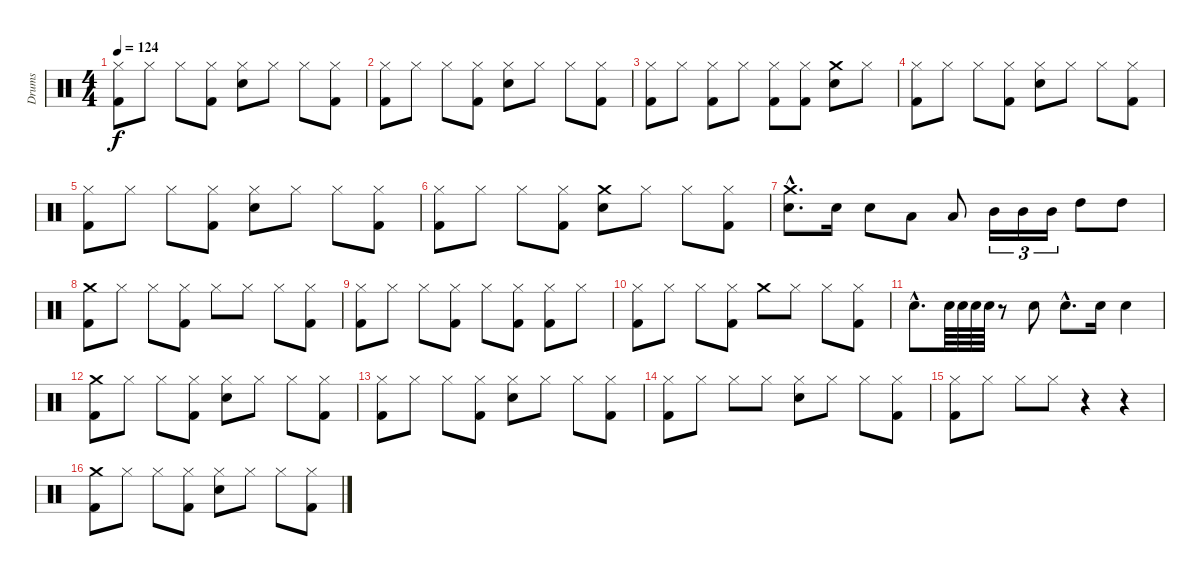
\track ("Drums" "Drums") {instrument percussion}
\staff {score}
\articulation defaults
\ts (4 4)
\tempo 124
\clef neutral
\ks c
("Kick (hit) 2" "Hi-Hat (closed)").8{dy f} "Hi-Hat (closed)".8 "Hi-Hat (closed)".8 ("Kick (hit) 2" "Hi-Hat (closed)").8 ("Snare (hit) 2" "Hi-Hat (closed)").8 "Hi-Hat (closed)".8 "Hi-Hat (closed)".8 ("Kick (hit) 2" "Hi-Hat (closed)").8 |
("Kick (hit) 2" "Hi-Hat (closed)").8 "Hi-Hat (closed)".8 "Hi-Hat (closed)".8 ("Kick (hit) 2" "Hi-Hat (closed)").8 ("Snare (hit) 2" "Hi-Hat (closed)").8 "Hi-Hat (closed)".8 "Hi-Hat (closed)".8 ("Kick (hit) 2" "Hi-Hat (closed)").8 |
("Kick (hit) 2" "Hi-Hat (closed)").8 "Hi-Hat (closed)".8 ("Kick (hit) 2" "Hi-Hat (closed)").8 "Hi-Hat (closed)".8 ("Kick (hit) 2" "Hi-Hat (closed)").8 ("Kick (hit) 2" "Hi-Hat (closed)").8 ("Snare (hit) 2" "Crash medium (hit)").8 "Hi-Hat (closed)".8 |
("Kick (hit) 2" "Hi-Hat (closed)").8 "Hi-Hat (closed)".8 "Hi-Hat (closed)".8 ("Kick (hit) 2" "Hi-Hat (closed)").8 ("Snare (hit) 2" "Hi-Hat (closed)").8 "Hi-Hat (closed)".8 "Hi-Hat (closed)".8 ("Kick (hit) 2" "Hi-Hat (closed)").8 |
("Kick (hit) 2" "Hi-Hat (closed)").8 "Hi-Hat (closed)".8 "Hi-Hat (closed)".8 ("Kick (hit) 2" "Hi-Hat (closed)").8 ("Snare (hit) 2" "Hi-Hat (closed)").8 "Hi-Hat (closed)".8 "Hi-Hat (closed)".8 ("Kick (hit) 2" "Hi-Hat (closed)").8 |
("Kick (hit) 2" "Hi-Hat (closed)").8 "Hi-Hat (closed)".8 "Hi-Hat (closed)".8 ("Kick (hit) 2" "Hi-Hat (closed)").8 ("Crash medium (hit)" "Snare (hit) 2").8 "Hi-Hat (closed)".8 "Hi-Hat (closed)".8 ("Kick (hit) 2" "Hi-Hat (closed)").8 |
("Snare (hit) 2"{hac} "Crash medium (hit)"{hac}).8{d} "Snare (hit) 2".16 "Snare (hit) 2".8 "Low Tom (hit)".8 "Low Tom (hit)".8 "Mid Tom (hit)".16{tu (3 2)} "Mid Tom (hit)".16{tu (3 2)} "Mid Tom (hit)".16{tu (3 2)} "High Tom (hit)".8 "High Tom (hit)".8 |
("Kick (hit) 2" "Crash medium (hit)").8 "Hi-Hat (closed)".8 "Hi-Hat (closed)".8 ("Kick (hit) 2" "Hi-Hat (closed)").8 "Hi-Hat (closed)".8 "Hi-Hat (closed)".8 "Hi-Hat (closed)".8 ("Kick (hit) 2" "Hi-Hat (closed)").8 |
("Kick (hit) 2" "Hi-Hat (closed)").8 "Hi-Hat (closed)".8 "Hi-Hat (closed)".8 ("Kick (hit) 2" "Hi-Hat (closed)").8 "Hi-Hat (closed)".8 ("Kick (hit) 2" "Hi-Hat (closed)").8 ("Kick (hit) 2" "Hi-Hat (closed)").8 "Hi-Hat (closed)".8 |
("Kick (hit) 2" "Hi-Hat (closed)").8 "Hi-Hat (closed)".8 "Hi-Hat (closed)".8 ("Kick (hit) 2" "Hi-Hat (closed)").8 "Crash medium (hit)".8 "Hi-Hat (closed)".8 "Hi-Hat (closed)".8 ("Kick (hit) 2" "Hi-Hat (closed)").8 |
"Snare (hit) 2"{hac}.8{d} "Snare (hit) 2".64 "Snare (hit) 2".64 "Snare (hit) 2".64 "Snare (hit) 2".64 r.8 "Snare (hit) 2".8 "Snare (hit) 2"{hac}.8{d} "Snare (hit) 2".16 "Snare (hit) 2".4 |
("Crash medium (hit)" "Kick (hit) 2").8 "Hi-Hat (closed)".8 "Hi-Hat (closed)".8 ("Kick (hit) 2" "Hi-Hat (closed)").8 ("Snare (hit) 2" "Hi-Hat (closed)").8 "Hi-Hat (closed)".8 "Hi-Hat (closed)".8 ("Kick (hit) 2" "Hi-Hat (closed)").8 |
("Hi-Hat (closed)" "Kick (hit) 2").8 "Hi-Hat (closed)".8 "Hi-Hat (closed)".8 ("Kick (hit) 2" "Hi-Hat (closed)").8 ("Snare (hit) 2" "Hi-Hat (closed)").8 "Hi-Hat (closed)".8 "Hi-Hat (closed)".8 ("Kick (hit) 2" "Hi-Hat (closed)").8 |
("Hi-Hat (closed)" "Kick (hit) 2").8 "Hi-Hat (closed)".8 "Hi-Hat (closed)".8 "Hi-Hat (closed)".8 ("Snare (hit) 2" "Hi-Hat (closed)").8 "Hi-Hat (closed)".8 "Hi-Hat (closed)".8 ("Kick (hit) 2" "Hi-Hat (closed)").8 |
("Hi-Hat (closed)" "Kick (hit) 2").8 "Hi-Hat (closed)".8 "Hi-Hat (closed)".8 "Hi-Hat (closed)".8 r.4 r.4 |
("Kick (hit) 2" "Crash medium (hit)").8 "Hi-Hat (closed)".8 "Hi-Hat (closed)".8 ("Kick (hit) 2" "Hi-Hat (closed)").8 ("Snare (hit) 2" "Hi-Hat (closed)").8 "Hi-Hat (closed)".8 "Hi-Hat (closed)".8 ("Kick (hit) 2" "Hi-Hat (closed)").8
